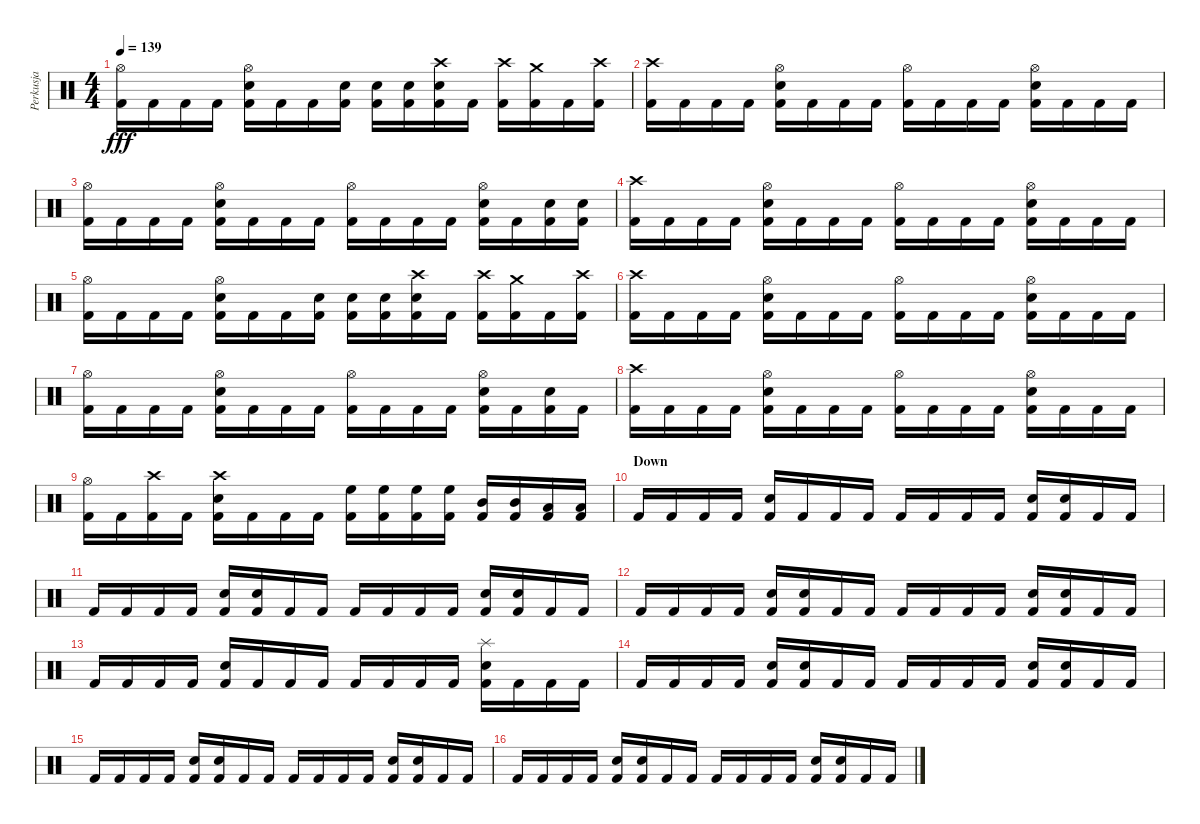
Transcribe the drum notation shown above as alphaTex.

\track ("Perkusja" "Perkusja") {instrument percussion}
\staff {score}
\articulation defaults
\ts (4 4)
\tempo 139
\clef neutral
\ks c
("Hi-Hat (open)" "Kick (hit) 2").16{dy fff} "Kick (hit) 2".16 "Kick (hit) 2".16 "Kick (hit) 2".16 ("Hi-Hat (open)" "Snare (hit) 2" "Kick (hit) 2").16 "Kick (hit) 2".16 "Kick (hit) 2".16 ("Snare (hit) 2" "Kick (hit) 2").16 ("Snare (hit) 2" "Kick (hit) 2").16 ("Snare (hit) 2" "Kick (hit) 2").16 ("Crash high (hit)" "Snare (hit) 2" "Kick (hit) 2").16 "Kick (hit) 2".16 ("Crash high (hit)" "Kick (hit) 2").16 ("Crash medium (hit)" "Kick (hit) 2").16 "Kick (hit) 2".16 ("Crash high (hit)" "Kick (hit) 2").16 |
("Crash high (hit)" "Kick (hit) 2").16 "Kick (hit) 2".16 "Kick (hit) 2".16 "Kick (hit) 2".16 ("Hi-Hat (open)" "Snare (hit) 2" "Kick (hit) 2").16 "Kick (hit) 2".16 "Kick (hit) 2".16 "Kick (hit) 2".16 ("Hi-Hat (open)" "Kick (hit) 2").16 "Kick (hit) 2".16 "Kick (hit) 2".16 "Kick (hit) 2".16 ("Hi-Hat (open)" "Snare (hit) 2" "Kick (hit) 2").16 "Kick (hit) 2".16 "Kick (hit) 2".16 "Kick (hit) 2".16 |
("Hi-Hat (open)" "Kick (hit) 2").16 "Kick (hit) 2".16 "Kick (hit) 2".16 "Kick (hit) 2".16 ("Hi-Hat (open)" "Snare (hit) 2" "Kick (hit) 2").16 "Kick (hit) 2".16 "Kick (hit) 2".16 "Kick (hit) 2".16 ("Hi-Hat (open)" "Kick (hit) 2").16 "Kick (hit) 2".16 "Kick (hit) 2".16 "Kick (hit) 2".16 ("Hi-Hat (open)" "Snare (hit) 2" "Kick (hit) 2").16 "Kick (hit) 2".16 ("Snare (hit) 2" "Kick (hit) 2").16 ("Snare (hit) 2" "Kick (hit) 2").16 |
("Crash high (hit)" "Kick (hit) 2").16 "Kick (hit) 2".16 "Kick (hit) 2".16 "Kick (hit) 2".16 ("Hi-Hat (open)" "Snare (hit) 2" "Kick (hit) 2").16 "Kick (hit) 2".16 "Kick (hit) 2".16 "Kick (hit) 2".16 ("Hi-Hat (open)" "Kick (hit) 2").16 "Kick (hit) 2".16 "Kick (hit) 2".16 "Kick (hit) 2".16 ("Hi-Hat (open)" "Snare (hit) 2" "Kick (hit) 2").16 "Kick (hit) 2".16 "Kick (hit) 2".16 "Kick (hit) 2".16 |
("Hi-Hat (open)" "Kick (hit) 2").16 "Kick (hit) 2".16 "Kick (hit) 2".16 "Kick (hit) 2".16 ("Hi-Hat (open)" "Snare (hit) 2" "Kick (hit) 2").16 "Kick (hit) 2".16 "Kick (hit) 2".16 ("Snare (hit) 2" "Kick (hit) 2").16 ("Snare (hit) 2" "Kick (hit) 2").16 ("Snare (hit) 2" "Kick (hit) 2").16 ("Crash high (hit)" "Snare (hit) 2" "Kick (hit) 2").16 "Kick (hit) 2".16 ("Crash high (hit)" "Kick (hit) 2").16 ("Crash medium (hit)" "Kick (hit) 2").16 "Kick (hit) 2".16 ("Crash high (hit)" "Kick (hit) 2").16 |
("Crash high (hit)" "Kick (hit) 2").16 "Kick (hit) 2".16 "Kick (hit) 2".16 "Kick (hit) 2".16 ("Hi-Hat (open)" "Snare (hit) 2" "Kick (hit) 2").16 "Kick (hit) 2".16 "Kick (hit) 2".16 "Kick (hit) 2".16 ("Hi-Hat (open)" "Kick (hit) 2").16 "Kick (hit) 2".16 "Kick (hit) 2".16 "Kick (hit) 2".16 ("Hi-Hat (open)" "Snare (hit) 2" "Kick (hit) 2").16 "Kick (hit) 2".16 "Kick (hit) 2".16 "Kick (hit) 2".16 |
("Hi-Hat (open)" "Kick (hit) 2").16 "Kick (hit) 2".16 "Kick (hit) 2".16 "Kick (hit) 2".16 ("Hi-Hat (open)" "Snare (hit) 2" "Kick (hit) 2").16 "Kick (hit) 2".16 "Kick (hit) 2".16 "Kick (hit) 2".16 ("Hi-Hat (open)" "Kick (hit) 2").16 "Kick (hit) 2".16 "Kick (hit) 2".16 "Kick (hit) 2".16 ("Hi-Hat (open)" "Snare (hit) 2" "Kick (hit) 2").16 "Kick (hit) 2".16 ("Snare (hit) 2" "Kick (hit) 2").16 "Kick (hit) 2".16 |
("Crash high (hit)" "Kick (hit) 2").16 "Kick (hit) 2".16 "Kick (hit) 2".16 "Kick (hit) 2".16 ("Hi-Hat (open)" "Snare (hit) 2" "Kick (hit) 2").16 "Kick (hit) 2".16 "Kick (hit) 2".16 "Kick (hit) 2".16 ("Hi-Hat (open)" "Kick (hit) 2").16 "Kick (hit) 2".16 "Kick (hit) 2".16 "Kick (hit) 2".16 ("Hi-Hat (open)" "Snare (hit) 2" "Kick (hit) 2").16 "Kick (hit) 2".16 "Kick (hit) 2".16 "Kick (hit) 2".16 |
("Hi-Hat (open)" "Kick (hit) 2").16 "Kick (hit) 2".16 ("Crash high (hit)" "Kick (hit) 2").16 "Kick (hit) 2".16 ("Crash high (hit)" "Snare (hit) 2" "Kick (hit) 2").16 "Kick (hit) 2".16 "Kick (hit) 2".16 "Kick (hit) 2".16 ("High Floor Tom (hit)" "Kick (hit) 2").16 ("High Floor Tom (hit)" "Kick (hit) 2").16 ("High Floor Tom (hit)" "Kick (hit) 2").16 ("High Floor Tom (hit)" "Kick (hit) 2").16 ("Mid Tom (hit)" "Kick (hit) 2").16 ("Mid Tom (hit)" "Kick (hit) 2").16 ("Low Tom (hit)" "Kick (hit) 2").16 ("Low Tom (hit)" "Kick (hit) 2").16 |
\section ("" "Down")
"Kick (hit) 2".16 "Kick (hit) 2".16 "Kick (hit) 2".16 "Kick (hit) 2".16 ("Snare (hit) 2" "Kick (hit) 2").16 "Kick (hit) 2".16 "Kick (hit) 2".16 "Kick (hit) 2".16 "Kick (hit) 2".16 "Kick (hit) 2".16 "Kick (hit) 2".16 "Kick (hit) 2".16 ("Snare (hit) 2" "Kick (hit) 2").16 ("Snare (hit) 2" "Kick (hit) 2").16 "Kick (hit) 2".16 "Kick (hit) 2".16 |
"Kick (hit) 2".16 "Kick (hit) 2".16 "Kick (hit) 2".16 "Kick (hit) 2".16 ("Snare (hit) 2" "Kick (hit) 2").16 ("Snare (hit) 2" "Kick (hit) 2").16 "Kick (hit) 2".16 "Kick (hit) 2".16 "Kick (hit) 2".16 "Kick (hit) 2".16 "Kick (hit) 2".16 "Kick (hit) 2".16 ("Snare (hit) 2" "Kick (hit) 2").16 ("Snare (hit) 2" "Kick (hit) 2").16 "Kick (hit) 2".16 "Kick (hit) 2".16 |
"Kick (hit) 2".16 "Kick (hit) 2".16 "Kick (hit) 2".16 "Kick (hit) 2".16 ("Snare (hit) 2" "Kick (hit) 2").16 ("Snare (hit) 2" "Kick (hit) 2").16 "Kick (hit) 2".16 "Kick (hit) 2".16 "Kick (hit) 2".16 "Kick (hit) 2".16 "Kick (hit) 2".16 "Kick (hit) 2".16 ("Snare (hit) 2" "Kick (hit) 2").16 ("Snare (hit) 2" "Kick (hit) 2").16 "Kick (hit) 2".16 "Kick (hit) 2".16 |
"Kick (hit) 2".16 "Kick (hit) 2".16 "Kick (hit) 2".16 "Kick (hit) 2".16 ("Snare (hit) 2" "Kick (hit) 2").16 "Kick (hit) 2".16 "Kick (hit) 2".16 "Kick (hit) 2".16 "Kick (hit) 2".16 "Kick (hit) 2".16 "Kick (hit) 2".16 "Kick (hit) 2".16 ("Splash (hit)" "Snare (hit) 2" "Kick (hit) 2").16 "Kick (hit) 2".16 "Kick (hit) 2".16 "Kick (hit) 2".16 |
"Kick (hit) 2".16 "Kick (hit) 2".16 "Kick (hit) 2".16 "Kick (hit) 2".16 ("Snare (hit) 2" "Kick (hit) 2").16 ("Snare (hit) 2" "Kick (hit) 2").16 "Kick (hit) 2".16 "Kick (hit) 2".16 "Kick (hit) 2".16 "Kick (hit) 2".16 "Kick (hit) 2".16 "Kick (hit) 2".16 ("Snare (hit) 2" "Kick (hit) 2").16 ("Snare (hit) 2" "Kick (hit) 2").16 "Kick (hit) 2".16 "Kick (hit) 2".16 |
"Kick (hit) 2".16 "Kick (hit) 2".16 "Kick (hit) 2".16 "Kick (hit) 2".16 ("Snare (hit) 2" "Kick (hit) 2").16 ("Snare (hit) 2" "Kick (hit) 2").16 "Kick (hit) 2".16 "Kick (hit) 2".16 "Kick (hit) 2".16 "Kick (hit) 2".16 "Kick (hit) 2".16 "Kick (hit) 2".16 ("Snare (hit) 2" "Kick (hit) 2").16 ("Snare (hit) 2" "Kick (hit) 2").16 "Kick (hit) 2".16 "Kick (hit) 2".16 |
"Kick (hit) 2".16 "Kick (hit) 2".16 "Kick (hit) 2".16 "Kick (hit) 2".16 ("Snare (hit) 2" "Kick (hit) 2").16 ("Snare (hit) 2" "Kick (hit) 2").16 "Kick (hit) 2".16 "Kick (hit) 2".16 "Kick (hit) 2".16 "Kick (hit) 2".16 "Kick (hit) 2".16 "Kick (hit) 2".16 ("Snare (hit) 2" "Kick (hit) 2").16 ("Snare (hit) 2" "Kick (hit) 2").16 "Kick (hit) 2".16 "Kick (hit) 2".16
